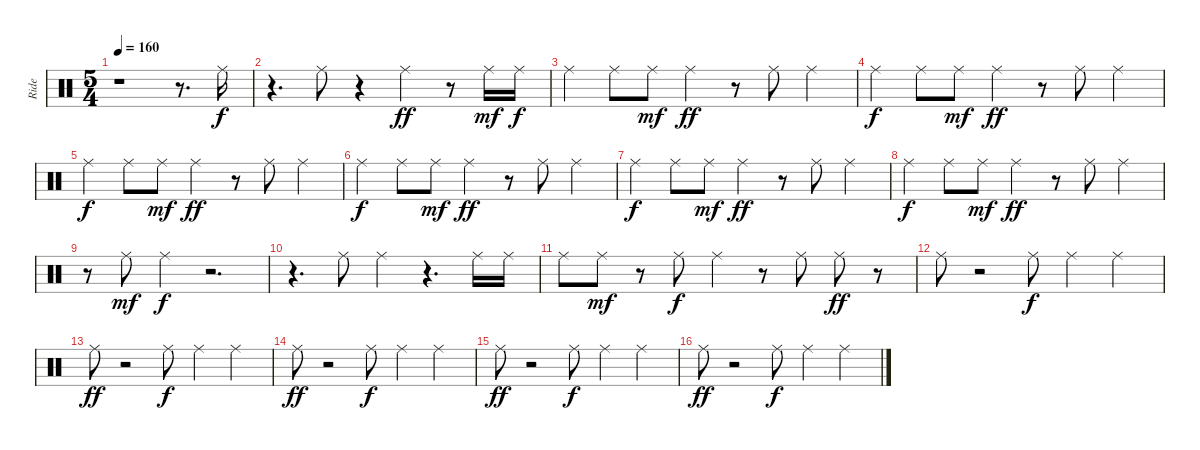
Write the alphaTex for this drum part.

\track ("Ride" "Ride") {instrument percussion}
\staff {score}
\articulation defaults
\ts (5 4)
\tempo 160
\clef neutral
\ks c
r.1{dy f} r.8{d} "Ride (middle)".16 |
r.4{d} "Ride (middle)".8 r.4 "Ride (middle)".4{dy ff} r.8 "Ride (middle)".16{dy mf} "Ride (middle)".16{dy f} |
"Ride (middle)".4 "Ride (middle)".8 "Ride (middle)".8{dy mf} "Ride (middle)".4{dy ff} r.8 "Ride (middle)".8 "Ride (middle)".4 |
"Ride (middle)".4{dy f} "Ride (middle)".8 "Ride (middle)".8{dy mf} "Ride (middle)".4{dy ff} r.8 "Ride (middle)".8 "Ride (middle)".4 |
"Ride (middle)".4{dy f} "Ride (middle)".8 "Ride (middle)".8{dy mf} "Ride (middle)".4{dy ff} r.8 "Ride (middle)".8 "Ride (middle)".4 |
"Ride (middle)".4{dy f} "Ride (middle)".8 "Ride (middle)".8{dy mf} "Ride (middle)".4{dy ff} r.8 "Ride (middle)".8 "Ride (middle)".4 |
"Ride (middle)".4{dy f} "Ride (middle)".8 "Ride (middle)".8{dy mf} "Ride (middle)".4{dy ff} r.8 "Ride (middle)".8 "Ride (middle)".4 |
"Ride (middle)".4{dy f} "Ride (middle)".8 "Ride (middle)".8{dy mf} "Ride (middle)".4{dy ff} r.8 "Ride (middle)".8 "Ride (middle)".4 |
r.8 "Ride (middle)".8{dy mf} "Ride (middle)".4{dy f} r.2{d} |
r.4{d} "Ride (middle)".8 "Ride (middle)".4 r.4{d} "Ride (middle)".16 "Ride (middle)".16 |
"Ride (middle)".8 "Ride (middle)".8{dy mf} r.8 "Ride (middle)".8{dy f} "Ride (middle)".4 r.8 "Ride (middle)".8 "Ride (middle)".8{dy ff} r.8 |
"Ride (middle)".8 r.2 "Ride (middle)".8{dy f} "Ride (middle)".4 "Ride (middle)".4 |
"Ride (middle)".8{dy ff} r.2 "Ride (middle)".8{dy f} "Ride (middle)".4 "Ride (middle)".4 |
"Ride (middle)".8{dy ff} r.2 "Ride (middle)".8{dy f} "Ride (middle)".4 "Ride (middle)".4 |
"Ride (middle)".8{dy ff} r.2 "Ride (middle)".8{dy f} "Ride (middle)".4 "Ride (middle)".4 |
"Ride (middle)".8{dy ff} r.2 "Ride (middle)".8{dy f} "Ride (middle)".4 "Ride (middle)".4
